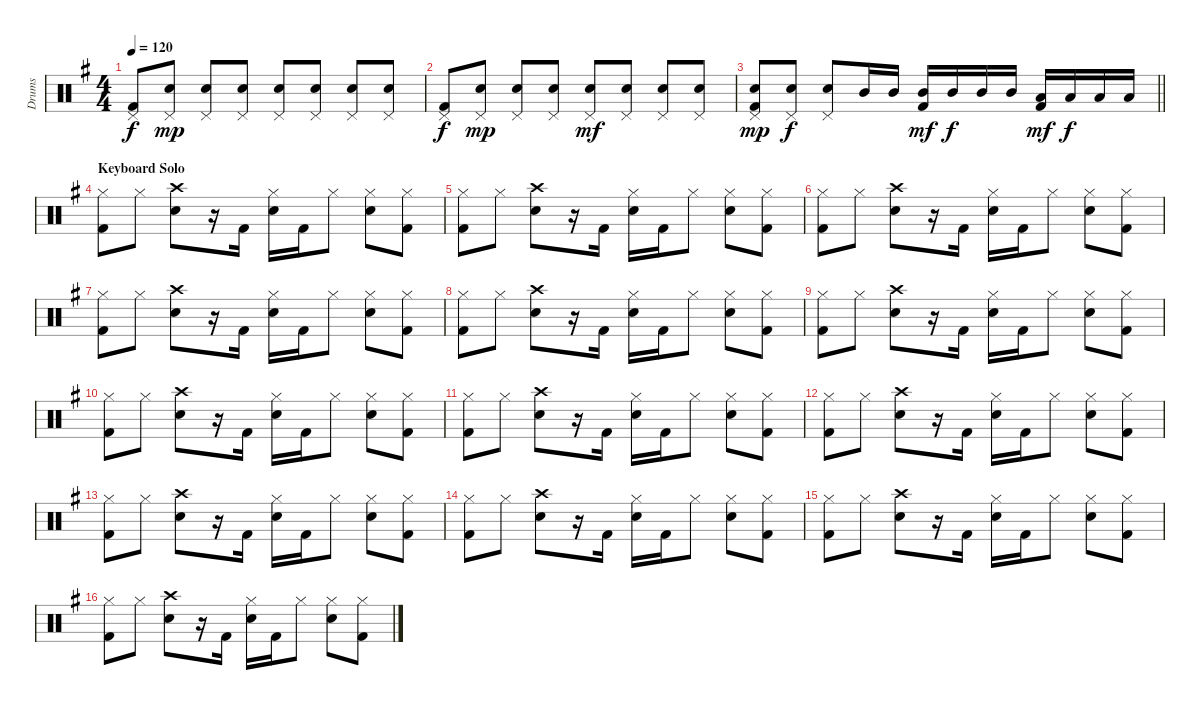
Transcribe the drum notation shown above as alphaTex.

\track ("Drums" "Drums") {instrument percussion}
\staff {score}
\articulation defaults
\ts (4 4)
\tempo 120
\clef neutral
\ks g
("Pedal Hi-Hat (hit)" "Kick (hit) 2").8{dy f} ("Pedal Hi-Hat (hit)" "Electric Snare (hit)").8{dy mp} ("Pedal Hi-Hat (hit)" "Electric Snare (hit)").8 ("Pedal Hi-Hat (hit)" "Electric Snare (hit)").8 ("Pedal Hi-Hat (hit)" "Electric Snare (hit)").8 ("Pedal Hi-Hat (hit)" "Electric Snare (hit)").8 ("Pedal Hi-Hat (hit)" "Electric Snare (hit)").8 ("Pedal Hi-Hat (hit)" "Electric Snare (hit)").8 |
("Pedal Hi-Hat (hit)" "Kick (hit) 2").8{dy f} ("Pedal Hi-Hat (hit)" "Electric Snare (hit)").8{dy mp} ("Pedal Hi-Hat (hit)" "Electric Snare (hit)").8 ("Pedal Hi-Hat (hit)" "Electric Snare (hit)").8 ("Pedal Hi-Hat (hit)" "Electric Snare (hit)").8{dy mf} ("Pedal Hi-Hat (hit)" "Electric Snare (hit)").8 ("Pedal Hi-Hat (hit)" "Electric Snare (hit)").8 ("Pedal Hi-Hat (hit)" "Electric Snare (hit)").8 |
\barLineRight lightlight
("Pedal Hi-Hat (hit)" "Electric Snare (hit)" "Kick (hit) 2").8{dy mp} ("Pedal Hi-Hat (hit)" "Electric Snare (hit)").8{dy f} ("Pedal Hi-Hat (hit)" "Electric Snare (hit)").8 "Mid Tom (hit)".16 "Mid Tom (hit)".16 ("Mid Tom (hit)" "Kick (hit) 2").16{dy mf} "Mid Tom (hit)".16{dy f} "Mid Tom (hit)".16 "Mid Tom (hit)".16 ("Low Tom (hit)" "Kick (hit) 2").16{dy mf} "Low Tom (hit)".16{dy f} "Low Tom (hit)".16 "Low Tom (hit)".16 |
\section ("" "Keyboard Solo")
("Hi-Hat (closed)" "Kick (hit) 2").8 "Hi-Hat (closed)".8 ("Crash high (hit)" "Electric Snare (hit)").8 r.16 "Kick (hit) 2".16 ("Hi-Hat (closed)" "Electric Snare (hit)").16 "Kick (hit) 2".16 "Hi-Hat (closed)".8 ("Hi-Hat (closed)" "Electric Snare (hit)").8 ("Hi-Hat (closed)" "Kick (hit) 2").8 |
("Hi-Hat (closed)" "Kick (hit) 2").8 "Hi-Hat (closed)".8 ("Crash high (hit)" "Electric Snare (hit)").8 r.16 "Kick (hit) 2".16 ("Hi-Hat (closed)" "Electric Snare (hit)").16 "Kick (hit) 2".16 "Hi-Hat (closed)".8 ("Hi-Hat (closed)" "Electric Snare (hit)").8 ("Hi-Hat (closed)" "Kick (hit) 2").8 |
("Hi-Hat (closed)" "Kick (hit) 2").8 "Hi-Hat (closed)".8 ("Crash high (hit)" "Electric Snare (hit)").8 r.16 "Kick (hit) 2".16 ("Hi-Hat (closed)" "Electric Snare (hit)").16 "Kick (hit) 2".16 "Hi-Hat (closed)".8 ("Hi-Hat (closed)" "Electric Snare (hit)").8 ("Hi-Hat (closed)" "Kick (hit) 2").8 |
("Hi-Hat (closed)" "Kick (hit) 2").8 "Hi-Hat (closed)".8 ("Crash high (hit)" "Electric Snare (hit)").8 r.16 "Kick (hit) 2".16 ("Hi-Hat (closed)" "Electric Snare (hit)").16 "Kick (hit) 2".16 "Hi-Hat (closed)".8 ("Hi-Hat (closed)" "Electric Snare (hit)").8 ("Hi-Hat (closed)" "Kick (hit) 2").8 |
("Hi-Hat (closed)" "Kick (hit) 2").8 "Hi-Hat (closed)".8 ("Crash high (hit)" "Electric Snare (hit)").8 r.16 "Kick (hit) 2".16 ("Hi-Hat (closed)" "Electric Snare (hit)").16 "Kick (hit) 2".16 "Hi-Hat (closed)".8 ("Hi-Hat (closed)" "Electric Snare (hit)").8 ("Hi-Hat (closed)" "Kick (hit) 2").8 |
("Hi-Hat (closed)" "Kick (hit) 2").8 "Hi-Hat (closed)".8 ("Crash high (hit)" "Electric Snare (hit)").8 r.16 "Kick (hit) 2".16 ("Hi-Hat (closed)" "Electric Snare (hit)").16 "Kick (hit) 2".16 "Hi-Hat (closed)".8 ("Hi-Hat (closed)" "Electric Snare (hit)").8 ("Hi-Hat (closed)" "Kick (hit) 2").8 |
("Hi-Hat (closed)" "Kick (hit) 2").8 "Hi-Hat (closed)".8 ("Crash high (hit)" "Electric Snare (hit)").8 r.16 "Kick (hit) 2".16 ("Hi-Hat (closed)" "Electric Snare (hit)").16 "Kick (hit) 2".16 "Hi-Hat (closed)".8 ("Hi-Hat (closed)" "Electric Snare (hit)").8 ("Hi-Hat (closed)" "Kick (hit) 2").8 |
("Hi-Hat (closed)" "Kick (hit) 2").8 "Hi-Hat (closed)".8 ("Crash high (hit)" "Electric Snare (hit)").8 r.16 "Kick (hit) 2".16 ("Hi-Hat (closed)" "Electric Snare (hit)").16 "Kick (hit) 2".16 "Hi-Hat (closed)".8 ("Hi-Hat (closed)" "Electric Snare (hit)").8 ("Hi-Hat (closed)" "Kick (hit) 2").8 |
("Hi-Hat (closed)" "Kick (hit) 2").8 "Hi-Hat (closed)".8 ("Crash high (hit)" "Electric Snare (hit)").8 r.16 "Kick (hit) 2".16 ("Hi-Hat (closed)" "Electric Snare (hit)").16 "Kick (hit) 2".16 "Hi-Hat (closed)".8 ("Hi-Hat (closed)" "Electric Snare (hit)").8 ("Hi-Hat (closed)" "Kick (hit) 2").8 |
("Hi-Hat (closed)" "Kick (hit) 2").8 "Hi-Hat (closed)".8 ("Crash high (hit)" "Electric Snare (hit)").8 r.16 "Kick (hit) 2".16 ("Hi-Hat (closed)" "Electric Snare (hit)").16 "Kick (hit) 2".16 "Hi-Hat (closed)".8 ("Hi-Hat (closed)" "Electric Snare (hit)").8 ("Hi-Hat (closed)" "Kick (hit) 2").8 |
("Hi-Hat (closed)" "Kick (hit) 2").8 "Hi-Hat (closed)".8 ("Crash high (hit)" "Electric Snare (hit)").8 r.16 "Kick (hit) 2".16 ("Hi-Hat (closed)" "Electric Snare (hit)").16 "Kick (hit) 2".16 "Hi-Hat (closed)".8 ("Hi-Hat (closed)" "Electric Snare (hit)").8 ("Hi-Hat (closed)" "Kick (hit) 2").8 |
("Hi-Hat (closed)" "Kick (hit) 2").8 "Hi-Hat (closed)".8 ("Crash high (hit)" "Electric Snare (hit)").8 r.16 "Kick (hit) 2".16 ("Hi-Hat (closed)" "Electric Snare (hit)").16 "Kick (hit) 2".16 "Hi-Hat (closed)".8 ("Hi-Hat (closed)" "Electric Snare (hit)").8 ("Hi-Hat (closed)" "Kick (hit) 2").8 |
("Hi-Hat (closed)" "Kick (hit) 2").8 "Hi-Hat (closed)".8 ("Crash high (hit)" "Electric Snare (hit)").8 r.16 "Kick (hit) 2".16 ("Hi-Hat (closed)" "Electric Snare (hit)").16 "Kick (hit) 2".16 "Hi-Hat (closed)".8 ("Hi-Hat (closed)" "Electric Snare (hit)").8 ("Hi-Hat (closed)" "Kick (hit) 2").8
